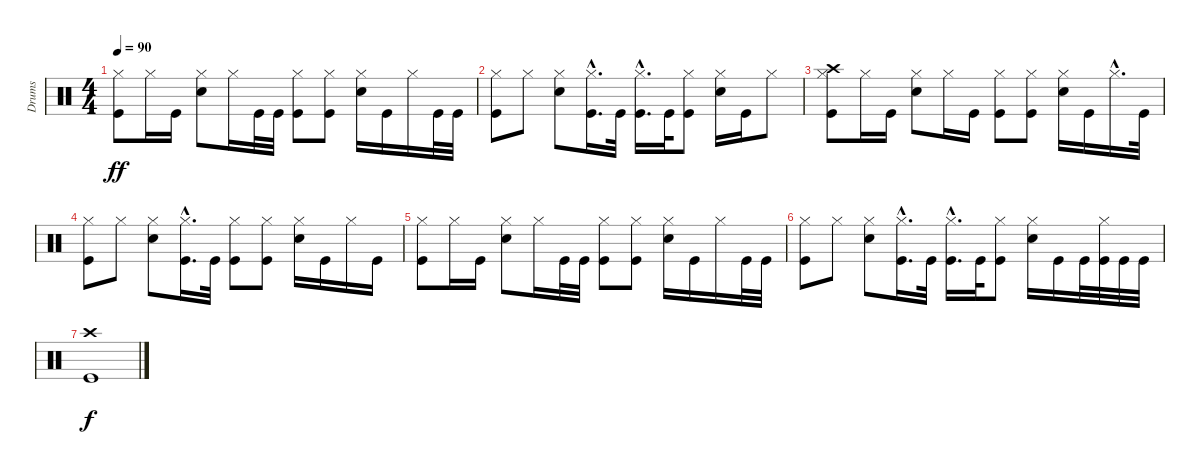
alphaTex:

\track ("Drums" "Drums") {instrument percussion}
\staff {score}
\articulation defaults
\ts (4 4)
\tempo 90
\clef neutral
\ks c
("Kick (hit)" "Hi-Hat (closed)").8{dy ff} "Hi-Hat (closed)".16 "Kick (hit)".16 ("Electric Snare (hit)" "Hi-Hat (closed)").8 "Hi-Hat (closed)".16 "Kick (hit)".32 "Kick (hit)".32 ("Kick (hit)" "Hi-Hat (closed)").8 ("Kick (hit)" "Hi-Hat (closed)").8 ("Electric Snare (hit)" "Hi-Hat (closed)").16 "Kick (hit)".16 "Hi-Hat (closed)".16 "Kick (hit)".32 "Kick (hit)".32 |
("Kick (hit)" "Hi-Hat (closed)").8 "Hi-Hat (closed)".8 ("Electric Snare (hit)" "Hi-Hat (closed)").8 ("Kick (hit)"{hac} "Hi-Hat (closed)"{hac}).16{d} "Kick (hit)".32 ("Kick (hit)"{hac} "Hi-Hat (closed)"{hac}).16{d} "Kick (hit)".32 ("Kick (hit)" "Hi-Hat (closed)").8 ("Electric Snare (hit)" "Hi-Hat (closed)").16 "Kick (hit)".16 "Hi-Hat (closed)".8 |
("Kick (hit)" "Hi-Hat (closed)" "Crash high (hit)").8 "Hi-Hat (closed)".16 "Kick (hit)".16 ("Electric Snare (hit)" "Hi-Hat (closed)").8 "Hi-Hat (closed)".16 "Kick (hit)".16 ("Kick (hit)" "Hi-Hat (closed)").8 ("Kick (hit)" "Hi-Hat (closed)").8 ("Electric Snare (hit)" "Hi-Hat (closed)").16 "Kick (hit)".16 "Hi-Hat (closed)"{hac}.16{d} "Kick (hit)".32 |
("Kick (hit)" "Hi-Hat (closed)").8 "Hi-Hat (closed)".8 ("Electric Snare (hit)" "Hi-Hat (closed)").8 ("Kick (hit)"{hac} "Hi-Hat (closed)"{hac}).16{d} "Kick (hit)".32 ("Kick (hit)" "Hi-Hat (closed)").8 ("Kick (hit)" "Hi-Hat (closed)").8 ("Electric Snare (hit)" "Hi-Hat (closed)").16 "Kick (hit)".16 "Hi-Hat (closed)".16 "Kick (hit)".16 |
("Kick (hit)" "Hi-Hat (closed)").8 "Hi-Hat (closed)".16 "Kick (hit)".16 ("Electric Snare (hit)" "Hi-Hat (closed)").8 "Hi-Hat (closed)".16 "Kick (hit)".32 "Kick (hit)".32 ("Kick (hit)" "Hi-Hat (closed)").8 ("Kick (hit)" "Hi-Hat (closed)").8 ("Electric Snare (hit)" "Hi-Hat (closed)").16 "Kick (hit)".16 "Hi-Hat (closed)".16 "Kick (hit)".32 "Kick (hit)".32 |
("Kick (hit)" "Hi-Hat (closed)").8 "Hi-Hat (closed)".8 ("Electric Snare (hit)" "Hi-Hat (closed)").8 ("Kick (hit)"{hac} "Hi-Hat (closed)"{hac}).16{d} "Kick (hit)".32 ("Kick (hit)"{hac} "Hi-Hat (closed)"{hac}).16{d} "Kick (hit)".32 ("Kick (hit)" "Hi-Hat (closed)").8 ("Electric Snare (hit)" "Hi-Hat (closed)").16 "Kick (hit)".16 "Kick (hit)".32 ("Kick (hit)" "Hi-Hat (closed)").32 "Kick (hit)".32 "Kick (hit)".32 |
("Crash high (hit)" "Kick (hit)").1{dy f}
